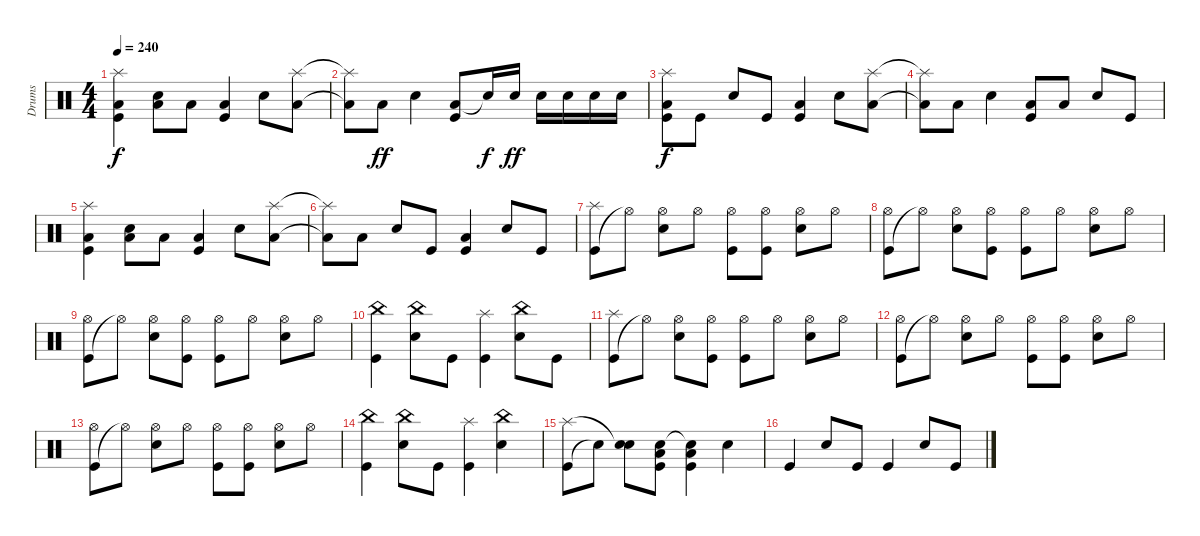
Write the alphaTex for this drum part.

\track ("Drums" "Drums") {instrument percussion}
\staff {score}
\articulation defaults
\ts (4 4)
\tempo 240
\clef neutral
\ks c
("Splash (hit)" "Low Floor Tom (hit)" "Kick (hit)").4{dy f} ("Low Floor Tom (hit)" "Snare (hit) 2").8 "Low Floor Tom (hit)".8 ("Low Floor Tom (hit)" "Kick (hit)").4 "Snare (hit) 2".8 ("Splash (hit)" "Low Floor Tom (hit)").8 |
("Splash (hit)"{t} "Low Floor Tom (hit)"{t}).8 "Low Floor Tom (hit)".8{dy ff} "Snare (hit) 2".4 ("Low Floor Tom (hit)" "Kick (hit)").8 "Snare (hit) 2"{t}.16{dy f} "Snare (hit) 2".16{dy ff} "Snare (hit) 2".16 "Snare (hit) 2".16 "Snare (hit) 2".16 "Snare (hit) 2".16 |
("Splash (hit)" "Low Floor Tom (hit)" "Kick (hit)").8{dy f} "Kick (hit)".8 "Snare (hit) 2".8 "Kick (hit)".8 ("Low Floor Tom (hit)" "Kick (hit)").4 "Snare (hit) 2".8 ("Splash (hit)" "Low Floor Tom (hit)").8 |
("Splash (hit)"{t} "Low Floor Tom (hit)"{t}).8 "Low Floor Tom (hit)".8 "Snare (hit) 2".4 ("Low Floor Tom (hit)" "Kick (hit)").8 "Low Floor Tom (hit)".8 "Snare (hit) 2".8 "Kick (hit)".8 |
("Splash (hit)" "Low Floor Tom (hit)" "Kick (hit)").4 ("Low Floor Tom (hit)" "Snare (hit) 2").8 "Low Floor Tom (hit)".8 ("Low Floor Tom (hit)" "Kick (hit)").4 "Snare (hit) 2".8 ("Splash (hit)" "Low Floor Tom (hit)").8 |
("Splash (hit)"{t} "Low Floor Tom (hit)"{t}).8 "Low Floor Tom (hit)".8 "Snare (hit) 2".8 "Kick (hit)".8 ("Low Floor Tom (hit)" "Kick (hit)").4 "Snare (hit) 2".8 "Kick (hit)".8 |
("Kick (hit)" "Splash (hit)").8 "Hi-Hat (open)"{t}.8 ("Snare (hit) 2" "Hi-Hat (open)").8 "Hi-Hat (open)".8 ("Kick (hit)" "Hi-Hat (open)").8 ("Kick (hit)" "Hi-Hat (open)").8 ("Snare (hit) 2" "Hi-Hat (open)").8 "Hi-Hat (open)".8 |
("Kick (hit)" "Hi-Hat (open)").8 "Hi-Hat (open)"{t}.8 ("Snare (hit) 2" "Hi-Hat (open)").8 ("Kick (hit)" "Hi-Hat (open)").8 ("Kick (hit)" "Hi-Hat (open)").8 "Hi-Hat (open)".8 ("Snare (hit) 2" "Hi-Hat (open)").8 "Hi-Hat (open)".8 |
("Kick (hit)" "Hi-Hat (open)").8 "Hi-Hat (open)"{t}.8 ("Snare (hit) 2" "Hi-Hat (open)").8 ("Kick (hit)" "Hi-Hat (open)").8 ("Kick (hit)" "Hi-Hat (open)").8 "Hi-Hat (open)".8 ("Snare (hit) 2" "Hi-Hat (open)").8 "Hi-Hat (open)".8 |
("Kick (hit)" "China (hit)").4 ("Snare (hit) 2" "China (hit)").8 "Kick (hit)".8 ("Kick (hit)" "Splash (hit)").4 ("Snare (hit) 2" "China (hit)").8 "Kick (hit)".8 |
("Kick (hit)" "Splash (hit)").8 "Hi-Hat (open)"{t}.8 ("Snare (hit) 2" "Hi-Hat (open)").8 ("Kick (hit)" "Hi-Hat (open)").8 ("Kick (hit)" "Hi-Hat (open)").8 "Hi-Hat (open)".8 ("Snare (hit) 2" "Hi-Hat (open)").8 "Hi-Hat (open)".8 |
("Kick (hit)" "Hi-Hat (open)").8 "Hi-Hat (open)"{t}.8 ("Snare (hit) 2" "Hi-Hat (open)").8 "Hi-Hat (open)".8 ("Kick (hit)" "Hi-Hat (open)").8 ("Kick (hit)" "Hi-Hat (open)").8 ("Snare (hit) 2" "Hi-Hat (open)").8 "Hi-Hat (open)".8 |
("Kick (hit)" "Hi-Hat (open)").8 "Hi-Hat (open)"{t}.8 ("Snare (hit) 2" "Hi-Hat (open)").8 "Hi-Hat (open)".8 ("Kick (hit)" "Hi-Hat (open)").8 ("Kick (hit)" "Hi-Hat (open)").8 ("Snare (hit) 2" "Hi-Hat (open)").8 "Hi-Hat (open)".8 |
("Kick (hit)" "China (hit)").4 ("Snare (hit) 2" "China (hit)").8 "Kick (hit)".8 ("Kick (hit)" "Splash (hit)").4 ("Snare (hit) 2" "China (hit)").4 |
("Kick (hit)" "Splash (hit)").8 "Snare (hit)"{t}.8 ("Snare (hit) 2" "Snare (hit)"{t}).8 ("Low Floor Tom (hit)" "Kick (hit)" "Snare (hit)").8 ("Low Floor Tom (hit)" "Kick (hit)" "Snare (hit)"{t}).4 "Snare (hit) 2".4 |
"Kick (hit)".4 "Snare (hit) 2".8 "Kick (hit)".8 "Kick (hit)".4 "Snare (hit) 2".8 "Kick (hit)".8
